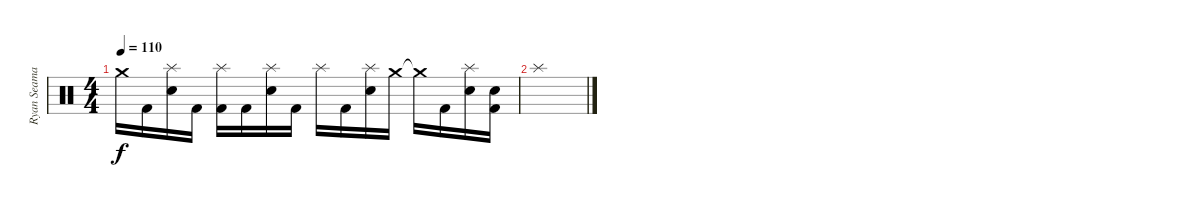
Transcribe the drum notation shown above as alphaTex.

\track ("Ryan Seaman-Drums" "Ryan Seama") {instrument percussion}
\staff {score}
\articulation defaults
\ts (4 4)
\tempo 110
\clef neutral
\ks c "Crash medium (hit)".16{dy f} "Kick (hit) 2".16
("Splash (hit)" "Electric Snare (hit)").16 "Kick (hit) 2".16 ("Splash (hit)" "Kick (hit) 2").16 "Kick (hit) 2".16 ("Splash (hit)" "Electric Snare (hit)").16 "Kick (hit) 2".16 "Splash (hit)".16 "Kick (hit) 2".16 ("Splash (hit)" "Electric Snare (hit)").16 "Crash medium (hit)".16 "Crash medium (hit)"{t}.16 "Kick (hit) 2".16 ("Electric Snare (hit)" "Splash (hit)").16 ("Electric Snare (hit)" "Kick (hit) 2").16 |
"Splash (hit)".1
